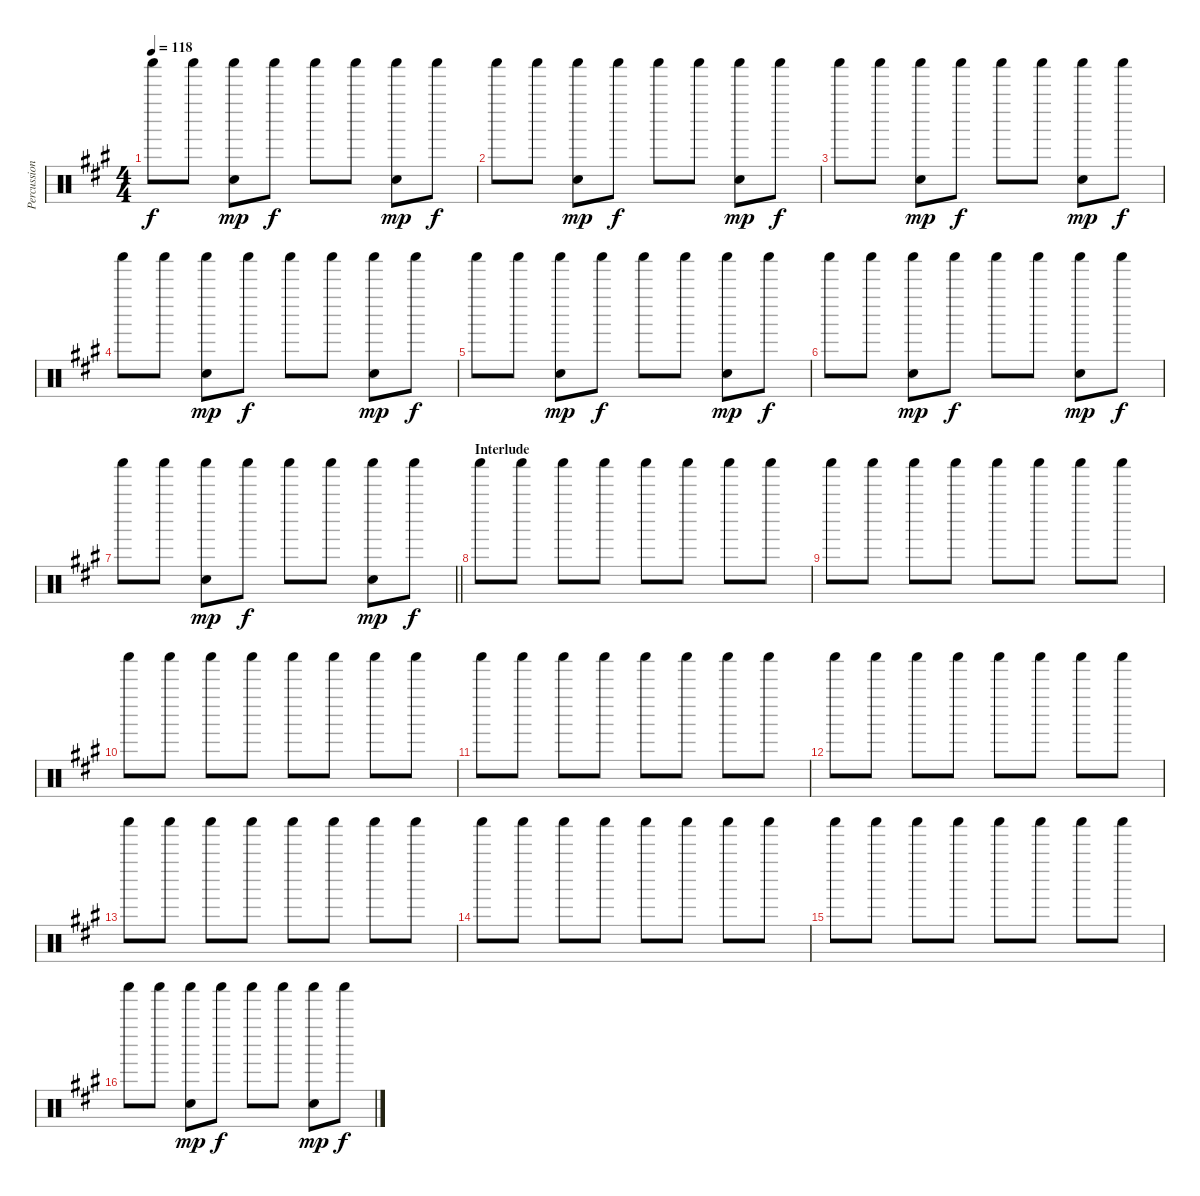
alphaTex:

\track ("Percussions" "Percussion") {instrument percussion}
\staff {score}
\articulation defaults
\ts (4 4)
\tempo 118
\clef neutral
\ks f#minor "Shaker (hit)".8{dy f} "Shaker (hit)".8
("Shaker (hit)" "Hand Clap (hit)").8{dy mp} "Shaker (hit)".8{dy f} "Shaker (hit)".8 "Shaker (hit)".8 ("Shaker (hit)" "Hand Clap (hit)").8{dy mp} "Shaker (hit)".8{dy f} |
"Shaker (hit)".8 "Shaker (hit)".8 ("Shaker (hit)" "Hand Clap (hit)").8{dy mp} "Shaker (hit)".8{dy f} "Shaker (hit)".8 "Shaker (hit)".8 ("Shaker (hit)" "Hand Clap (hit)").8{dy mp} "Shaker (hit)".8{dy f} |
"Shaker (hit)".8 "Shaker (hit)".8 ("Shaker (hit)" "Hand Clap (hit)").8{dy mp} "Shaker (hit)".8{dy f} "Shaker (hit)".8 "Shaker (hit)".8 ("Shaker (hit)" "Hand Clap (hit)").8{dy mp} "Shaker (hit)".8{dy f} |
"Shaker (hit)".8 "Shaker (hit)".8 ("Shaker (hit)" "Hand Clap (hit)").8{dy mp} "Shaker (hit)".8{dy f} "Shaker (hit)".8 "Shaker (hit)".8 ("Shaker (hit)" "Hand Clap (hit)").8{dy mp} "Shaker (hit)".8{dy f} |
"Shaker (hit)".8 "Shaker (hit)".8 ("Shaker (hit)" "Hand Clap (hit)").8{dy mp} "Shaker (hit)".8{dy f} "Shaker (hit)".8 "Shaker (hit)".8 ("Shaker (hit)" "Hand Clap (hit)").8{dy mp} "Shaker (hit)".8{dy f} |
"Shaker (hit)".8 "Shaker (hit)".8 ("Shaker (hit)" "Hand Clap (hit)").8{dy mp} "Shaker (hit)".8{dy f} "Shaker (hit)".8 "Shaker (hit)".8 ("Shaker (hit)" "Hand Clap (hit)").8{dy mp} "Shaker (hit)".8{dy f} |
\barLineRight lightlight "Shaker (hit)".8 "Shaker (hit)".8
("Shaker (hit)" "Hand Clap (hit)").8{dy mp} "Shaker (hit)".8{dy f} "Shaker (hit)".8 "Shaker (hit)".8 ("Shaker (hit)" "Hand Clap (hit)").8{dy mp} "Shaker (hit)".8{dy f} |
\section ("" "Interlude")
"Shaker (hit)".8 "Shaker (hit)".8 "Shaker (hit)".8 "Shaker (hit)".8 "Shaker (hit)".8 "Shaker (hit)".8 "Shaker (hit)".8 "Shaker (hit)".8 |
"Shaker (hit)".8 "Shaker (hit)".8 "Shaker (hit)".8 "Shaker (hit)".8 "Shaker (hit)".8 "Shaker (hit)".8 "Shaker (hit)".8 "Shaker (hit)".8 |
"Shaker (hit)".8 "Shaker (hit)".8 "Shaker (hit)".8 "Shaker (hit)".8 "Shaker (hit)".8 "Shaker (hit)".8 "Shaker (hit)".8 "Shaker (hit)".8 |
"Shaker (hit)".8 "Shaker (hit)".8 "Shaker (hit)".8 "Shaker (hit)".8 "Shaker (hit)".8 "Shaker (hit)".8 "Shaker (hit)".8 "Shaker (hit)".8 |
"Shaker (hit)".8 "Shaker (hit)".8 "Shaker (hit)".8 "Shaker (hit)".8 "Shaker (hit)".8 "Shaker (hit)".8 "Shaker (hit)".8 "Shaker (hit)".8 |
"Shaker (hit)".8 "Shaker (hit)".8 "Shaker (hit)".8 "Shaker (hit)".8 "Shaker (hit)".8 "Shaker (hit)".8 "Shaker (hit)".8 "Shaker (hit)".8 |
"Shaker (hit)".8 "Shaker (hit)".8 "Shaker (hit)".8 "Shaker (hit)".8 "Shaker (hit)".8 "Shaker (hit)".8 "Shaker (hit)".8 "Shaker (hit)".8 |
"Shaker (hit)".8 "Shaker (hit)".8 "Shaker (hit)".8 "Shaker (hit)".8 "Shaker (hit)".8 "Shaker (hit)".8 "Shaker (hit)".8 "Shaker (hit)".8 |
"Shaker (hit)".8 "Shaker (hit)".8 ("Shaker (hit)" "Hand Clap (hit)").8{dy mp} "Shaker (hit)".8{dy f} "Shaker (hit)".8 "Shaker (hit)".8 ("Shaker (hit)" "Hand Clap (hit)").8{dy mp} "Shaker (hit)".8{dy f}
